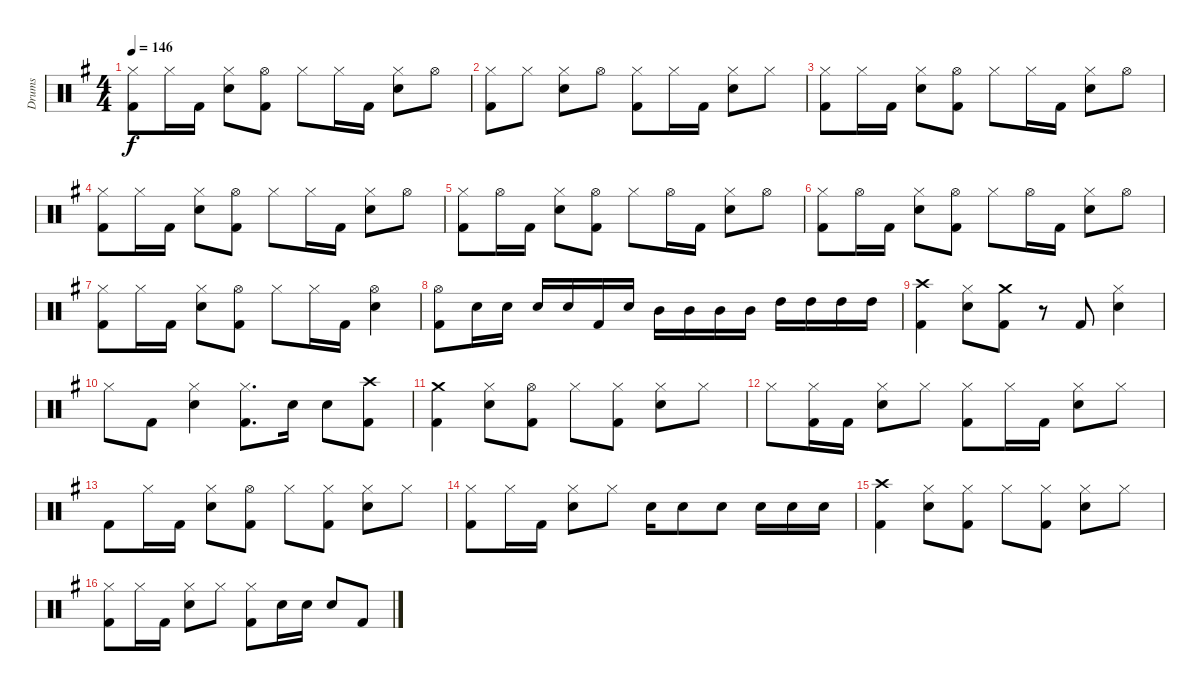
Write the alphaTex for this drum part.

\track ("Drums" "Drums") {instrument percussion}
\staff {score}
\articulation defaults
\ts (4 4)
\tempo 146
\clef neutral
\ks g
("Kick (hit) 2" "Hi-Hat (closed)").8{dy f} "Hi-Hat (closed)".16 "Kick (hit) 2".16 ("Snare (hit) 2" "Hi-Hat (closed)").8 ("Kick (hit) 2" "Hi-Hat (open)").8 "Hi-Hat (closed)".8 "Hi-Hat (closed)".16 "Kick (hit) 2".16 ("Snare (hit) 2" "Hi-Hat (closed)").8 "Hi-Hat (open)".8 |
("Kick (hit) 2" "Hi-Hat (closed)").8 "Hi-Hat (closed)".8 ("Snare (hit) 2" "Hi-Hat (closed)").8 "Hi-Hat (open)".8 ("Kick (hit) 2" "Hi-Hat (closed)").8 "Hi-Hat (closed)".16 "Kick (hit) 2".16 ("Snare (hit) 2" "Hi-Hat (closed)").8 "Hi-Hat (closed)".8 |
("Kick (hit) 2" "Hi-Hat (closed)").8 "Hi-Hat (closed)".16 "Kick (hit) 2".16 ("Snare (hit) 2" "Hi-Hat (closed)").8 ("Kick (hit) 2" "Hi-Hat (open)").8 "Hi-Hat (closed)".8 "Hi-Hat (closed)".16 "Kick (hit) 2".16 ("Snare (hit) 2" "Hi-Hat (closed)").8 "Hi-Hat (open)".8 |
("Kick (hit) 2" "Hi-Hat (closed)").8 "Hi-Hat (closed)".16 "Kick (hit) 2".16 ("Snare (hit) 2" "Hi-Hat (closed)").8 ("Kick (hit) 2" "Hi-Hat (open)").8 "Hi-Hat (closed)".8 "Hi-Hat (closed)".16 "Kick (hit) 2".16 ("Snare (hit) 2" "Hi-Hat (closed)").8 "Hi-Hat (open)".8 |
("Kick (hit) 2" "Hi-Hat (closed)").8 "Hi-Hat (open)".16 "Kick (hit) 2".16 ("Snare (hit) 2" "Hi-Hat (closed)").8 ("Kick (hit) 2" "Hi-Hat (open)").8 "Hi-Hat (closed)".8 "Hi-Hat (open)".16 "Kick (hit) 2".16 ("Snare (hit) 2" "Hi-Hat (closed)").8 "Hi-Hat (open)".8 |
("Kick (hit) 2" "Hi-Hat (closed)").8 "Hi-Hat (open)".16 "Kick (hit) 2".16 ("Snare (hit) 2" "Hi-Hat (closed)").8 ("Kick (hit) 2" "Hi-Hat (open)").8 "Hi-Hat (closed)".8 "Hi-Hat (open)".16 "Kick (hit) 2".16 ("Snare (hit) 2" "Hi-Hat (closed)").8 "Hi-Hat (open)".8 |
("Kick (hit) 2" "Hi-Hat (closed)").8 "Hi-Hat (closed)".16 "Kick (hit) 2".16 ("Snare (hit) 2" "Hi-Hat (closed)").8 ("Kick (hit) 2" "Hi-Hat (open)").8 "Hi-Hat (closed)".8 "Hi-Hat (closed)".16 "Kick (hit) 2".16 ("Snare (hit) 2" "Hi-Hat (open)").4 |
("Kick (hit) 2" "Hi-Hat (open)").8 "Snare (hit) 2".16 "Snare (hit) 2".16 "Snare (hit) 2".16 "Snare (hit) 2".16 "Kick (hit) 2".16 "Snare (hit) 2".16 "Mid Tom (hit)".16 "Mid Tom (hit)".16 "Mid Tom (hit)".16 "Mid Tom (hit)".16 "High Tom (hit)".16 "High Tom (hit)".16 "High Tom (hit)".16 "High Tom (hit)".16 |
("Kick (hit) 2" "Crash high (hit)").4 ("Snare (hit) 2" "Hi-Hat (closed)").8 ("Kick (hit) 2" "Crash medium (hit)").8 r.8 "Kick (hit) 2".8 ("Snare (hit) 2" "Hi-Hat (closed)").4 |
"Hi-Hat (closed)".8 "Kick (hit) 2".8 ("Snare (hit) 2" "Hi-Hat (closed)").4 ("Kick (hit) 2" "Hi-Hat (closed)").8{d} "Snare (hit) 2".16 "Snare (hit) 2".8 ("Kick (hit) 2" "Crash high (hit)").8 |
("Kick (hit) 2" "Crash medium (hit)").4 ("Snare (hit) 2" "Hi-Hat (closed)").8 ("Kick (hit) 2" "Hi-Hat (open)").8 "Hi-Hat (closed)".8 ("Kick (hit) 2" "Hi-Hat (closed)").8 ("Snare (hit) 2" "Hi-Hat (closed)").8 "Hi-Hat (closed)".8 |
"Hi-Hat (closed)".8 ("Kick (hit) 2" "Hi-Hat (closed)").16 "Kick (hit) 2".16 ("Snare (hit) 2" "Hi-Hat (closed)").8 "Hi-Hat (closed)".8 ("Kick (hit) 2" "Hi-Hat (closed)").8 "Hi-Hat (closed)".16 "Kick (hit) 2".16 ("Snare (hit) 2" "Hi-Hat (closed)").8 "Hi-Hat (closed)".8 |
"Kick (hit) 2".8 "Hi-Hat (closed)".16 "Kick (hit) 2".16 ("Snare (hit) 2" "Hi-Hat (closed)").8 ("Kick (hit) 2" "Hi-Hat (open)").8 "Hi-Hat (closed)".8 ("Kick (hit) 2" "Hi-Hat (closed)").8 ("Snare (hit) 2" "Hi-Hat (closed)").8 "Hi-Hat (closed)".8 |
("Kick (hit) 2" "Hi-Hat (closed)").8 "Hi-Hat (closed)".16 "Kick (hit) 2".16 ("Snare (hit) 2" "Hi-Hat (closed)").8 "Hi-Hat (closed)".8 "Snare (hit) 2".16 "Snare (hit) 2".8 "Snare (hit) 2".8 "Snare (hit) 2".16 "Snare (hit) 2".16 "Snare (hit) 2".16 |
("Kick (hit) 2" "Crash high (hit)").4 ("Snare (hit) 2" "Hi-Hat (closed)").8 ("Kick (hit) 2" "Hi-Hat (closed)").8 "Hi-Hat (closed)".8 ("Kick (hit) 2" "Hi-Hat (closed)").8 ("Snare (hit) 2" "Hi-Hat (closed)").8 "Hi-Hat (closed)".8 |
("Kick (hit) 2" "Hi-Hat (closed)").8 "Hi-Hat (closed)".16 "Kick (hit) 2".16 ("Snare (hit) 2" "Hi-Hat (closed)").8 "Hi-Hat (closed)".8 ("Kick (hit) 2" "Hi-Hat (closed)").8 "Snare (hit) 2".16 "Snare (hit) 2".16 "Snare (hit) 2".8 "Kick (hit) 2".8
